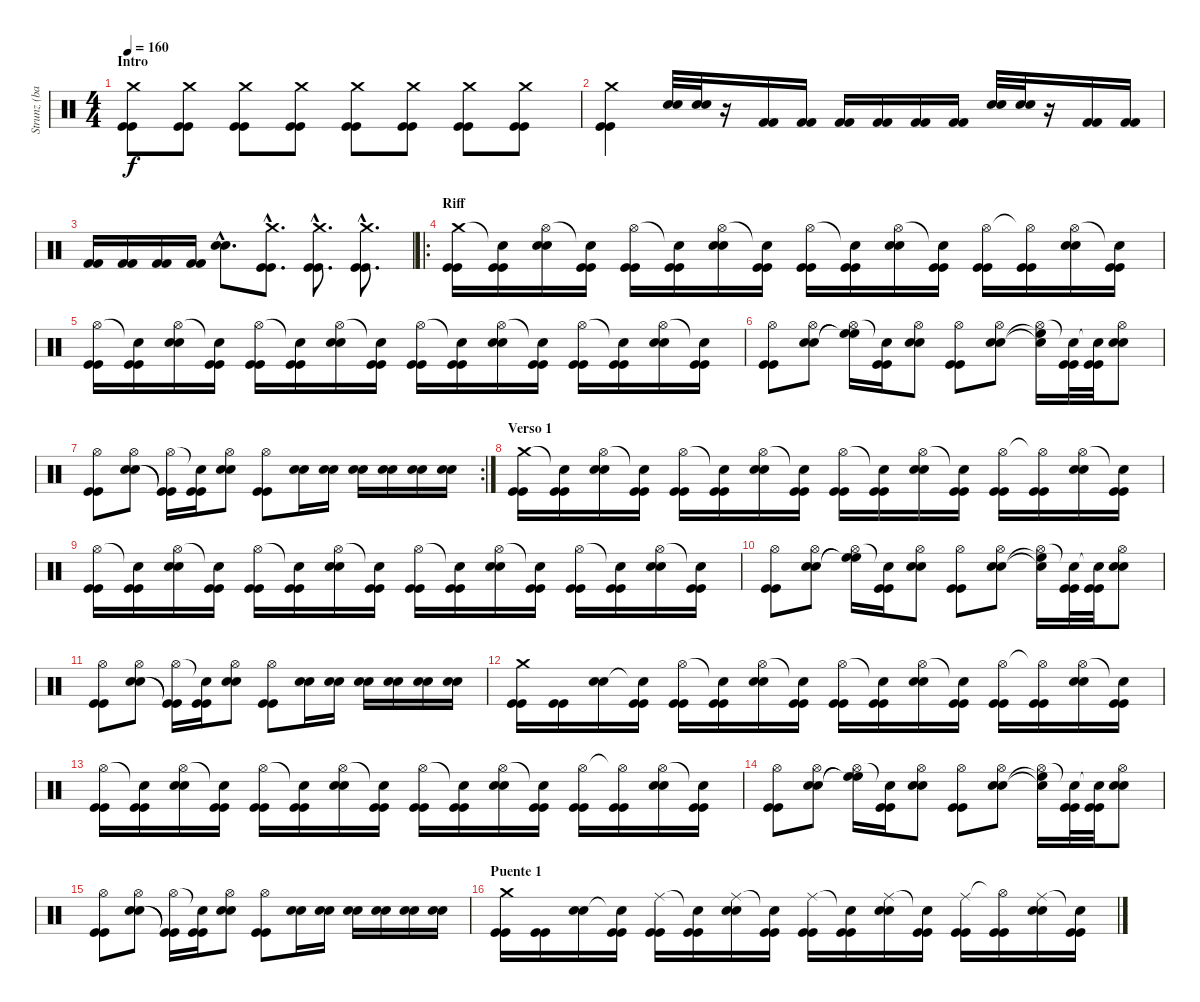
\track ("Strunz (bateria)" "Strunz (ba") {instrument percussion}
\staff {score}
\articulation defaults
\ts (4 4)
\section ("" "Intro")
\tempo 160
\clef neutral
\ks c
("Crash medium (hit)" "Kick (hit)" "Kick (hit)").8{dy f} ("Crash medium (hit)" "Kick (hit)" "Kick (hit)").8 ("Crash medium (hit)" "Kick (hit)" "Kick (hit)").8 ("Crash medium (hit)" "Kick (hit)" "Kick (hit)").8 ("Crash medium (hit)" "Kick (hit)" "Kick (hit)").8 ("Crash medium (hit)" "Kick (hit)" "Kick (hit)").8 ("Crash medium (hit)" "Kick (hit)" "Kick (hit)").8 ("Crash medium (hit)" "Kick (hit)" "Kick (hit)").8 |
("Crash medium (hit)" "Kick (hit)" "Kick (hit)").4 ("Snare (hit) 2" "Snare (hit) 2").32 ("Snare (hit) 2" "Snare (hit) 2").32 r.16 ("Kick (hit) 2" "Kick (hit) 2").16 ("Kick (hit) 2" "Kick (hit) 2").16 ("Kick (hit) 2" "Kick (hit) 2").16 ("Kick (hit) 2" "Kick (hit) 2").16 ("Kick (hit) 2" "Kick (hit) 2").16 ("Kick (hit) 2" "Kick (hit) 2").16 ("Snare (hit) 2" "Snare (hit) 2").32 ("Snare (hit) 2" "Snare (hit) 2").32 r.16 ("Kick (hit) 2" "Kick (hit) 2").16 ("Kick (hit) 2" "Kick (hit) 2").16 |
("Kick (hit) 2" "Kick (hit) 2").16 ("Kick (hit) 2" "Kick (hit) 2").16 ("Kick (hit) 2" "Kick (hit) 2").16 ("Kick (hit) 2" "Kick (hit) 2").16 ("Snare (hit) 2"{hac} "Snare (hit) 2"{hac}).8{d} ("Crash medium (hit)"{hac} "Kick (hit)"{hac} "Kick (hit)"{hac}).8{d} ("Crash medium (hit)"{hac} "Kick (hit)"{hac} "Kick (hit)"{hac}).8{d} ("Crash medium (hit)"{hac} "Kick (hit)"{hac} "Kick (hit)"{hac}).8{d} |
\ro
\section ("" "Riff")
("Crash medium (hit)" "Kick (hit)" "Kick (hit)").16 ("Snare (hit)"{t} "Kick (hit)" "Kick (hit)").16 ("Hi-Hat (open)" "Snare (hit) 2" "Snare (hit) 2").16 ("Snare (hit)"{t} "Kick (hit)" "Kick (hit)").16 ("Hi-Hat (open)" "Kick (hit)" "Kick (hit)").16 ("Snare (hit)"{t} "Kick (hit)" "Kick (hit)").16 ("Hi-Hat (open)" "Snare (hit) 2" "Snare (hit) 2").16 ("Snare (hit)"{t} "Kick (hit)" "Kick (hit)").16 ("Hi-Hat (open)" "Kick (hit)" "Kick (hit)").16 ("Snare (hit)"{t} "Kick (hit)" "Kick (hit)").16 ("Hi-Hat (open)" "Snare (hit) 2" "Snare (hit) 2").16 ("Snare (hit)"{t} "Kick (hit)" "Kick (hit)").16 ("Hi-Hat (open)" "Kick (hit)" "Kick (hit)").16 ("Hi-Hat (open)"{t} "Kick (hit)" "Kick (hit)").16 ("Hi-Hat (open)" "Snare (hit) 2" "Snare (hit) 2").16 ("Snare (hit)"{t} "Kick (hit)" "Kick (hit)").16 |
("Hi-Hat (open)" "Kick (hit)" "Kick (hit)").16 ("Snare (hit)"{t} "Kick (hit)" "Kick (hit)").16 ("Hi-Hat (open)" "Snare (hit) 2" "Snare (hit) 2").16 ("Snare (hit)"{t} "Kick (hit)" "Kick (hit)").16 ("Hi-Hat (open)" "Kick (hit)" "Kick (hit)").16 ("Snare (hit)"{t} "Kick (hit)" "Kick (hit)").16 ("Hi-Hat (open)" "Snare (hit) 2" "Snare (hit) 2").16 ("Snare (hit)"{t} "Kick (hit)" "Kick (hit)").16 ("Hi-Hat (open)" "Kick (hit)" "Kick (hit)").16 ("Snare (hit)"{t} "Kick (hit)" "Kick (hit)").16 ("Hi-Hat (open)" "Snare (hit) 2" "Snare (hit) 2").16 ("Snare (hit)"{t} "Kick (hit)" "Kick (hit)").16 ("Hi-Hat (open)" "Kick (hit)" "Kick (hit)").16 ("Snare (hit)"{t} "Kick (hit)" "Kick (hit)").16 ("Hi-Hat (open)" "Snare (hit) 2" "Snare (hit) 2").16 ("Snare (hit)"{t} "Kick (hit)" "Kick (hit)").16 |
("Hi-Hat (open)" "Kick (hit)" "Kick (hit)").8 ("Hi-Hat (open)" "Snare (hit) 2" "Snare (hit) 2").8 ("Hi-Hat (open)" "High Floor Tom (hit)"{t} "High Floor Tom (hit)"{t}).16 ("Snare (hit)"{t} "Kick (hit)" "Kick (hit)").16 ("Hi-Hat (open)" "Snare (hit) 2" "Snare (hit) 2").8 ("Hi-Hat (open)" "Kick (hit)" "Kick (hit)").8 ("Hi-Hat (open)" "Snare (hit) 2" "Snare (hit) 2").8 ("Hi-Hat (open)" "Snare (hit)"{t} "High Floor Tom (hit)"{t}).16 ("Snare (hit)"{t} "Kick (hit)" "Kick (hit)").32 ("Snare (hit)"{t} "Kick (hit)" "Kick (hit)").32 ("Hi-Hat (open)" "Snare (hit) 2" "Snare (hit) 2").8 |
\rc 2
("Hi-Hat (open)" "Kick (hit)" "Kick (hit)").8 ("Hi-Hat (open)" "Snare (hit) 2" "Snare (hit) 2").8 ("Hi-Hat (open)" "Kick (hit)"{t} "Kick (hit)"{t}).16 ("Snare (hit)"{t} "Kick (hit)" "Kick (hit)").16 ("Hi-Hat (open)" "Snare (hit) 2" "Snare (hit) 2").8 ("Hi-Hat (open)" "Kick (hit)" "Kick (hit)").8 ("Snare (hit) 2" "Snare (hit) 2").16 ("Snare (hit) 2" "Snare (hit) 2").16 ("Snare (hit) 2" "Snare (hit) 2").16 ("Snare (hit) 2" "Snare (hit) 2").16 ("Snare (hit) 2" "Snare (hit) 2").16 ("Snare (hit) 2" "Snare (hit) 2").16 |
\section ("" "Verso 1")
("Crash medium (hit)" "Kick (hit)" "Kick (hit)").16 ("Snare (hit)"{t} "Kick (hit)" "Kick (hit)").16 ("Hi-Hat (open)" "Snare (hit) 2" "Snare (hit) 2").16 ("Snare (hit)"{t} "Kick (hit)" "Kick (hit)").16 ("Hi-Hat (open)" "Kick (hit)" "Kick (hit)").16 ("Snare (hit)"{t} "Kick (hit)" "Kick (hit)").16 ("Hi-Hat (open)" "Snare (hit) 2" "Snare (hit) 2").16 ("Snare (hit)"{t} "Kick (hit)" "Kick (hit)").16 ("Hi-Hat (open)" "Kick (hit)" "Kick (hit)").16 ("Snare (hit)"{t} "Kick (hit)" "Kick (hit)").16 ("Hi-Hat (open)" "Snare (hit) 2" "Snare (hit) 2").16 ("Snare (hit)"{t} "Kick (hit)" "Kick (hit)").16 ("Hi-Hat (open)" "Kick (hit)" "Kick (hit)").16 ("Hi-Hat (open)"{t} "Kick (hit)" "Kick (hit)").16 ("Hi-Hat (open)" "Snare (hit) 2" "Snare (hit) 2").16 ("Snare (hit)"{t} "Kick (hit)" "Kick (hit)").16 |
("Hi-Hat (open)" "Kick (hit)" "Kick (hit)").16 ("Snare (hit)"{t} "Kick (hit)" "Kick (hit)").16 ("Hi-Hat (open)" "Snare (hit) 2" "Snare (hit) 2").16 ("Snare (hit)"{t} "Kick (hit)" "Kick (hit)").16 ("Hi-Hat (open)" "Kick (hit)" "Kick (hit)").16 ("Snare (hit)"{t} "Kick (hit)" "Kick (hit)").16 ("Hi-Hat (open)" "Snare (hit) 2" "Snare (hit) 2").16 ("Snare (hit)"{t} "Kick (hit)" "Kick (hit)").16 ("Hi-Hat (open)" "Kick (hit)" "Kick (hit)").16 ("Snare (hit)"{t} "Kick (hit)" "Kick (hit)").16 ("Hi-Hat (open)" "Snare (hit) 2" "Snare (hit) 2").16 ("Snare (hit)"{t} "Kick (hit)" "Kick (hit)").16 ("Hi-Hat (open)" "Kick (hit)" "Kick (hit)").16 ("Snare (hit)"{t} "Kick (hit)" "Kick (hit)").16 ("Hi-Hat (open)" "Snare (hit) 2" "Snare (hit) 2").16 ("Snare (hit)"{t} "Kick (hit)" "Kick (hit)").16 |
("Hi-Hat (open)" "Kick (hit)" "Kick (hit)").8 ("Hi-Hat (open)" "Snare (hit) 2" "Snare (hit) 2").8 ("Hi-Hat (open)" "High Floor Tom (hit)"{t} "High Floor Tom (hit)"{t}).16 ("Snare (hit)"{t} "Kick (hit)" "Kick (hit)").16 ("Hi-Hat (open)" "Snare (hit) 2" "Snare (hit) 2").8 ("Hi-Hat (open)" "Kick (hit)" "Kick (hit)").8 ("Hi-Hat (open)" "Snare (hit) 2" "Snare (hit) 2").8 ("Hi-Hat (open)" "Snare (hit)"{t} "High Floor Tom (hit)"{t}).16 ("Snare (hit)"{t} "Kick (hit)" "Kick (hit)").32 ("Snare (hit)"{t} "Kick (hit)" "Kick (hit)").32 ("Hi-Hat (open)" "Snare (hit) 2" "Snare (hit) 2").8 |
("Hi-Hat (open)" "Kick (hit)" "Kick (hit)").8 ("Hi-Hat (open)" "Snare (hit) 2" "Snare (hit) 2").8 ("Hi-Hat (open)" "Kick (hit)"{t} "Kick (hit)"{t}).16 ("Snare (hit)"{t} "Kick (hit)" "Kick (hit)").16 ("Hi-Hat (open)" "Snare (hit) 2" "Snare (hit) 2").8 ("Hi-Hat (open)" "Kick (hit)" "Kick (hit)").8 ("Snare (hit) 2" "Snare (hit) 2").16 ("Snare (hit) 2" "Snare (hit) 2").16 ("Snare (hit) 2" "Snare (hit) 2").16 ("Snare (hit) 2" "Snare (hit) 2").16 ("Snare (hit) 2" "Snare (hit) 2").16 ("Snare (hit) 2" "Snare (hit) 2").16 |
("Crash medium (hit)" "Kick (hit)" "Kick (hit)").16 ("Kick (hit)" "Kick (hit)").16 ("Snare (hit) 2" "Snare (hit) 2").16 ("Snare (hit)"{t} "Kick (hit)" "Kick (hit)").16 ("Hi-Hat (open)" "Kick (hit)" "Kick (hit)").16 ("Snare (hit)"{t} "Kick (hit)" "Kick (hit)").16 ("Hi-Hat (open)" "Snare (hit) 2" "Snare (hit) 2").16 ("Snare (hit)"{t} "Kick (hit)" "Kick (hit)").16 ("Hi-Hat (open)" "Kick (hit)" "Kick (hit)").16 ("Snare (hit)"{t} "Kick (hit)" "Kick (hit)").16 ("Hi-Hat (open)" "Snare (hit) 2" "Snare (hit) 2").16 ("Snare (hit)"{t} "Kick (hit)" "Kick (hit)").16 ("Hi-Hat (open)" "Kick (hit)" "Kick (hit)").16 ("Hi-Hat (open)"{t} "Kick (hit)" "Kick (hit)").16 ("Hi-Hat (open)" "Snare (hit) 2" "Snare (hit) 2").16 ("Snare (hit)"{t} "Kick (hit)" "Kick (hit)").16 |
("Hi-Hat (open)" "Kick (hit)" "Kick (hit)").16 ("Snare (hit)"{t} "Kick (hit)" "Kick (hit)").16 ("Hi-Hat (open)" "Snare (hit) 2" "Snare (hit) 2").16 ("Snare (hit)"{t} "Kick (hit)" "Kick (hit)").16 ("Hi-Hat (open)" "Kick (hit)" "Kick (hit)").16 ("Snare (hit)"{t} "Kick (hit)" "Kick (hit)").16 ("Hi-Hat (open)" "Snare (hit) 2" "Snare (hit) 2").16 ("Snare (hit)"{t} "Kick (hit)" "Kick (hit)").16 ("Hi-Hat (open)" "Kick (hit)" "Kick (hit)").16 ("Snare (hit)"{t} "Kick (hit)" "Kick (hit)").16 ("Hi-Hat (open)" "Snare (hit) 2" "Snare (hit) 2").16 ("Snare (hit)"{t} "Kick (hit)" "Kick (hit)").16 ("Hi-Hat (open)" "Kick (hit)" "Kick (hit)").16 ("Hi-Hat (open)"{t} "Kick (hit)" "Kick (hit)").16 ("Hi-Hat (open)" "Snare (hit) 2" "Snare (hit) 2").16 ("Snare (hit)"{t} "Kick (hit)" "Kick (hit)").16 |
("Hi-Hat (open)" "Kick (hit)" "Kick (hit)").8 ("Hi-Hat (open)" "Snare (hit) 2" "Snare (hit) 2").8 ("Hi-Hat (open)" "High Floor Tom (hit)"{t} "High Floor Tom (hit)"{t}).16 ("Snare (hit)"{t} "Kick (hit)" "Kick (hit)").16 ("Hi-Hat (open)" "Snare (hit) 2" "Snare (hit) 2").8 ("Hi-Hat (open)" "Kick (hit)" "Kick (hit)").8 ("Hi-Hat (open)" "Snare (hit) 2" "Snare (hit) 2").8 ("Hi-Hat (open)" "Snare (hit)"{t} "High Floor Tom (hit)"{t}).16 ("Snare (hit)"{t} "Kick (hit)" "Kick (hit)").32 ("Snare (hit)"{t} "Kick (hit)" "Kick (hit)").32 ("Hi-Hat (open)" "Snare (hit) 2" "Snare (hit) 2").8 |
("Hi-Hat (open)" "Kick (hit)" "Kick (hit)").8 ("Hi-Hat (open)" "Snare (hit) 2" "Snare (hit) 2").8 ("Hi-Hat (open)" "Kick (hit)"{t} "Kick (hit)"{t}).16 ("Snare (hit)"{t} "Kick (hit)" "Kick (hit)").16 ("Hi-Hat (open)" "Snare (hit) 2" "Snare (hit) 2").8 ("Hi-Hat (open)" "Kick (hit)" "Kick (hit)").8 ("Snare (hit) 2" "Snare (hit) 2").16 ("Snare (hit) 2" "Snare (hit) 2").16 ("Snare (hit) 2" "Snare (hit) 2").16 ("Snare (hit) 2" "Snare (hit) 2").16 ("Snare (hit) 2" "Snare (hit) 2").16 ("Snare (hit) 2" "Snare (hit) 2").16 |
\section ("" "Puente 1")
("Crash medium (hit)" "Kick (hit)" "Kick (hit)").16 ("Kick (hit)" "Kick (hit)").16 ("Snare (hit) 2" "Snare (hit) 2").16 ("Snare (hit)"{t} "Kick (hit)" "Kick (hit)").16 ("Ride (middle)" "Kick (hit)" "Kick (hit)").16 ("Snare (hit)"{t} "Kick (hit)" "Kick (hit)").16 ("Ride (middle)" "Snare (hit) 2" "Snare (hit) 2").16 ("Snare (hit)"{t} "Kick (hit)" "Kick (hit)").16 ("Ride (middle)" "Kick (hit)" "Kick (hit)").16 ("Snare (hit)"{t} "Kick (hit)" "Kick (hit)").16 ("Ride (middle)" "Snare (hit) 2" "Snare (hit) 2").16 ("Snare (hit)"{t} "Kick (hit)" "Kick (hit)").16 ("Ride (middle)" "Kick (hit)" "Kick (hit)").16 ("Hi-Hat (open)"{t} "Kick (hit)" "Kick (hit)").16 ("Ride (middle)" "Snare (hit) 2" "Snare (hit) 2").16 ("Snare (hit)"{t} "Kick (hit)" "Kick (hit)").16
